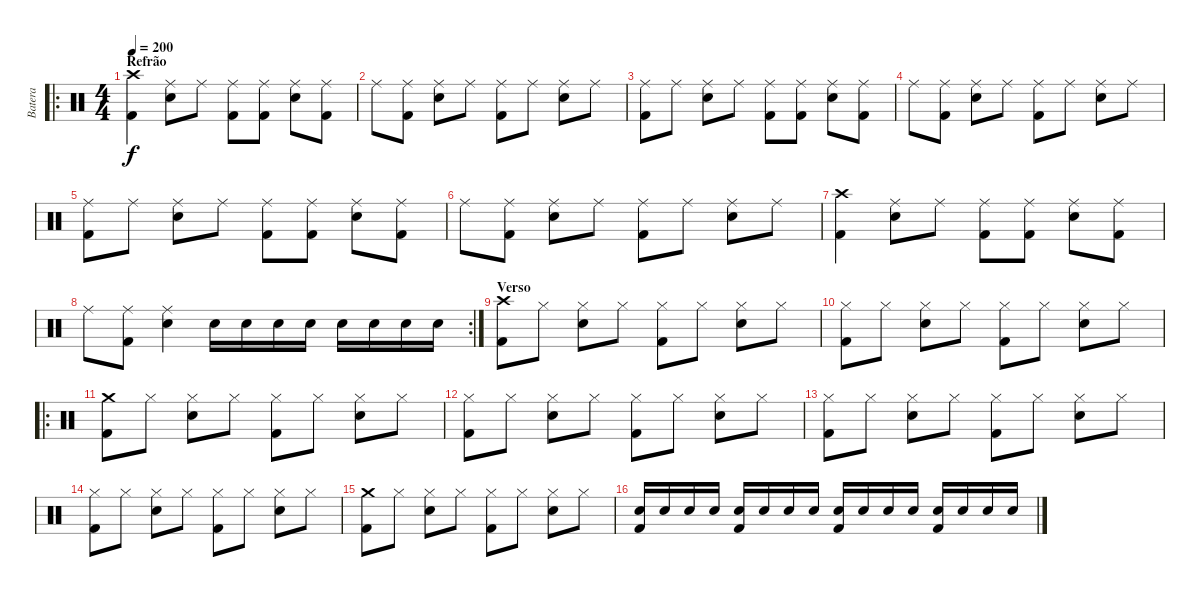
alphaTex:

\track ("Batera" "Batera") {instrument percussion}
\staff {score}
\articulation defaults
\ro
\ts (4 4)
\section ("" "Refrão")
\tempo 200
\clef neutral
\ks c
("Crash high (hit)" "Kick (hit) 2").4{dy f} ("Ride (middle)" "Electric Snare (hit)").8 "Ride (middle)".8 ("Ride (middle)" "Kick (hit) 2").8 ("Ride (middle)" "Kick (hit) 2").8 ("Ride (middle)" "Electric Snare (hit)").8 ("Ride (middle)" "Kick (hit) 2").8 |
"Ride (middle)".8 ("Ride (middle)" "Kick (hit) 2").8 ("Ride (middle)" "Electric Snare (hit)").8 "Ride (middle)".8 ("Ride (middle)" "Kick (hit) 2").8 "Ride (middle)".8 ("Ride (middle)" "Electric Snare (hit)").8 "Ride (middle)".8 |
("Ride (middle)" "Kick (hit) 2").8 "Ride (middle)".8 ("Ride (middle)" "Electric Snare (hit)").8 "Ride (middle)".8 ("Ride (middle)" "Kick (hit) 2").8 ("Ride (middle)" "Kick (hit) 2").8 ("Ride (middle)" "Electric Snare (hit)").8 ("Ride (middle)" "Kick (hit) 2").8 |
"Ride (middle)".8 ("Ride (middle)" "Kick (hit) 2").8 ("Ride (middle)" "Electric Snare (hit)").8 "Ride (middle)".8 ("Ride (middle)" "Kick (hit) 2").8 "Ride (middle)".8 ("Ride (middle)" "Electric Snare (hit)").8 "Ride (middle)".8 |
("Ride (middle)" "Kick (hit) 2").8 "Ride (middle)".8 ("Ride (middle)" "Electric Snare (hit)").8 "Ride (middle)".8 ("Ride (middle)" "Kick (hit) 2").8 ("Ride (middle)" "Kick (hit) 2").8 ("Ride (middle)" "Electric Snare (hit)").8 ("Ride (middle)" "Kick (hit) 2").8 |
"Ride (middle)".8 ("Ride (middle)" "Kick (hit) 2").8 ("Ride (middle)" "Electric Snare (hit)").8 "Ride (middle)".8 ("Ride (middle)" "Kick (hit) 2").8 "Ride (middle)".8 ("Ride (middle)" "Electric Snare (hit)").8 "Ride (middle)".8 |
("Crash high (hit)" "Kick (hit) 2").4 ("Ride (middle)" "Electric Snare (hit)").8 "Ride (middle)".8 ("Ride (middle)" "Kick (hit) 2").8 ("Ride (middle)" "Kick (hit) 2").8 ("Ride (middle)" "Electric Snare (hit)").8 ("Ride (middle)" "Kick (hit) 2").8 |
\rc 2 "Ride (middle)".8
("Ride (middle)" "Kick (hit) 2").8 ("Ride (middle)" "Electric Snare (hit)").4 "Electric Snare (hit)".16 "Electric Snare (hit)".16 "Electric Snare (hit)".16 "Electric Snare (hit)".16 "Electric Snare (hit)".16 "Electric Snare (hit)".16 "Electric Snare (hit)".16 "Electric Snare (hit)".16 |
\section ("" "Verso")
("Crash high (hit)" "Kick (hit) 2").8 "Hi-Hat (closed)".8 ("Hi-Hat (closed)" "Electric Snare (hit)").8 "Hi-Hat (closed)".8 ("Hi-Hat (closed)" "Kick (hit) 2").8 "Hi-Hat (closed)".8 ("Hi-Hat (closed)" "Electric Snare (hit)").8 "Hi-Hat (closed)".8 |
("Hi-Hat (closed)" "Kick (hit) 2").8 "Hi-Hat (closed)".8 ("Hi-Hat (closed)" "Electric Snare (hit)").8 "Hi-Hat (closed)".8 ("Hi-Hat (closed)" "Kick (hit) 2").8 "Hi-Hat (closed)".8 ("Hi-Hat (closed)" "Electric Snare (hit)").8 "Hi-Hat (closed)".8 |
\ro
("Crash medium (hit)" "Kick (hit) 2").8 "Hi-Hat (closed)".8 ("Hi-Hat (closed)" "Electric Snare (hit)").8 "Hi-Hat (closed)".8 ("Hi-Hat (closed)" "Kick (hit) 2").8 "Hi-Hat (closed)".8 ("Hi-Hat (closed)" "Electric Snare (hit)").8 "Hi-Hat (closed)".8 |
("Hi-Hat (closed)" "Kick (hit) 2").8 "Hi-Hat (closed)".8 ("Hi-Hat (closed)" "Electric Snare (hit)").8 "Hi-Hat (closed)".8 ("Hi-Hat (closed)" "Kick (hit) 2").8 "Hi-Hat (closed)".8 ("Hi-Hat (closed)" "Electric Snare (hit)").8 "Hi-Hat (closed)".8 |
("Hi-Hat (closed)" "Kick (hit) 2").8 "Hi-Hat (closed)".8 ("Hi-Hat (closed)" "Electric Snare (hit)").8 "Hi-Hat (closed)".8 ("Hi-Hat (closed)" "Kick (hit) 2").8 "Hi-Hat (closed)".8 ("Hi-Hat (closed)" "Electric Snare (hit)").8 "Hi-Hat (closed)".8 |
("Hi-Hat (closed)" "Kick (hit) 2").8 "Hi-Hat (closed)".8 ("Hi-Hat (closed)" "Electric Snare (hit)").8 "Hi-Hat (closed)".8 ("Hi-Hat (closed)" "Kick (hit) 2").8 "Hi-Hat (closed)".8 ("Hi-Hat (closed)" "Electric Snare (hit)").8 "Hi-Hat (closed)".8 |
("Crash medium (hit)" "Kick (hit) 2").8 "Hi-Hat (closed)".8 ("Hi-Hat (closed)" "Electric Snare (hit)").8 "Hi-Hat (closed)".8 ("Hi-Hat (closed)" "Kick (hit) 2").8 "Hi-Hat (closed)".8 ("Hi-Hat (closed)" "Electric Snare (hit)").8 "Hi-Hat (closed)".8 |
("Electric Snare (hit)" "Kick (hit) 2").16 "Electric Snare (hit)".16 "Electric Snare (hit)".16 "Electric Snare (hit)".16 ("Electric Snare (hit)" "Kick (hit) 2").16 "Electric Snare (hit)".16 "Electric Snare (hit)".16 "Electric Snare (hit)".16 ("Electric Snare (hit)" "Kick (hit) 2").16 "Electric Snare (hit)".16 "Electric Snare (hit)".16 "Electric Snare (hit)".16 ("Electric Snare (hit)" "Kick (hit) 2").16 "Electric Snare (hit)".16 "Electric Snare (hit)".16 "Electric Snare (hit)".16
